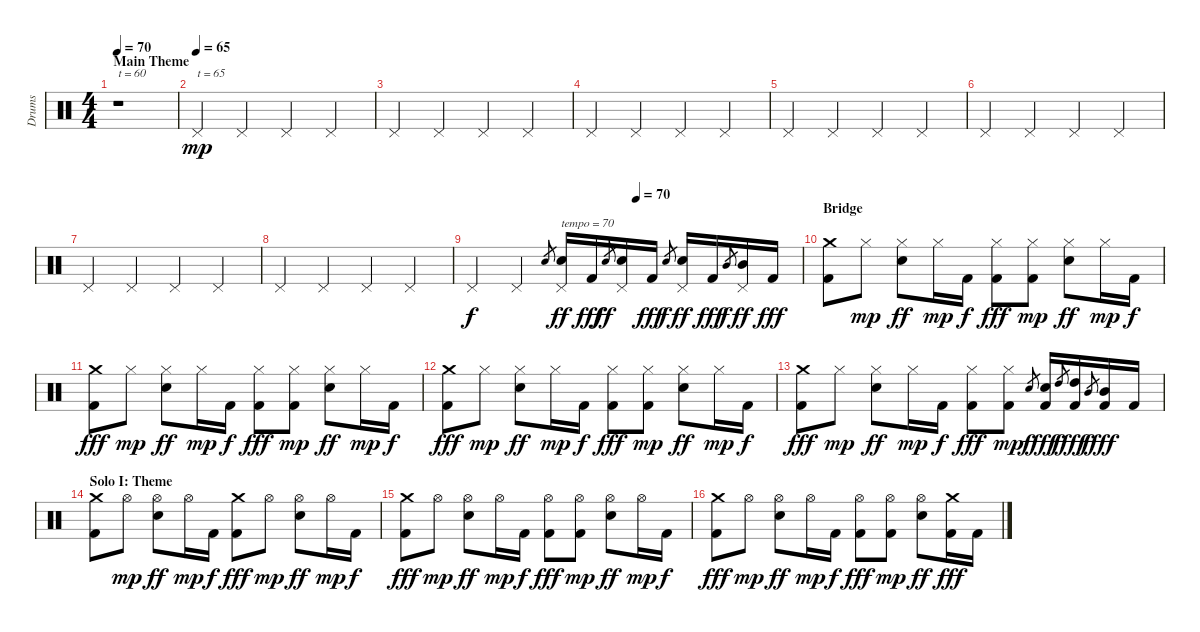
\track ("Drums" "Drums") {instrument percussion}
\staff {score}
\articulation defaults
\ts (4 4)
\section ("" "Main Theme")
\tempo 70
\tempo 60
\tempo 70
\clef neutral
\ks c
r.1{txt "t = 60" dy mp} |
\tempo (65)
"Pedal Hi-Hat (hit)".4{txt "t = 65"} "Pedal Hi-Hat (hit)".4 "Pedal Hi-Hat (hit)".4 "Pedal Hi-Hat (hit)".4 |
"Pedal Hi-Hat (hit)".4 "Pedal Hi-Hat (hit)".4 "Pedal Hi-Hat (hit)".4 "Pedal Hi-Hat (hit)".4 |
"Pedal Hi-Hat (hit)".4 "Pedal Hi-Hat (hit)".4 "Pedal Hi-Hat (hit)".4 "Pedal Hi-Hat (hit)".4 |
"Pedal Hi-Hat (hit)".4 "Pedal Hi-Hat (hit)".4 "Pedal Hi-Hat (hit)".4 "Pedal Hi-Hat (hit)".4 |
"Pedal Hi-Hat (hit)".4 "Pedal Hi-Hat (hit)".4 "Pedal Hi-Hat (hit)".4 "Pedal Hi-Hat (hit)".4 |
"Pedal Hi-Hat (hit)".4 "Pedal Hi-Hat (hit)".4 "Pedal Hi-Hat (hit)".4 "Pedal Hi-Hat (hit)".4 |
"Pedal Hi-Hat (hit)".4 "Pedal Hi-Hat (hit)".4 "Pedal Hi-Hat (hit)".4 "Pedal Hi-Hat (hit)".4 |
\tempo (70 0.5)
"Pedal Hi-Hat (hit)".4{dy f} "Pedal Hi-Hat (hit)".4 "Snare (hit) 2".8{gr} ("Pedal Hi-Hat (hit)" "Snare (hit) 2").16{txt "tempo = 70" dy ff} "Kick (hit) 2".16{dy fff} "Snare (hit) 2".8{gr dy ff} ("Pedal Hi-Hat (hit)" "Snare (hit) 2").16 "Kick (hit) 2".16{dy fff} "Snare (hit) 2".8{gr dy f} ("Pedal Hi-Hat (hit)" "Snare (hit) 2").16{dy ff} "Kick (hit) 2".16{dy fff} "Mid Tom (hit)".8{gr dy f} ("Pedal Hi-Hat (hit)" "Mid Tom (hit)").16{dy ff} "Kick (hit) 2".16{dy fff} |
\section ("" "Bridge")
("Crash medium (hit)" "Kick (hit) 2").8 "Hi-Hat (closed)".8{dy mp} ("Hi-Hat (closed)" "Snare (hit) 2").8{dy ff} "Hi-Hat (closed)".16{dy mp} "Kick (hit) 2".16{dy f} ("Hi-Hat (closed)" "Kick (hit) 2").8{dy fff} ("Hi-Hat (closed)" "Kick (hit) 2").8{dy mp} ("Hi-Hat (closed)" "Snare (hit) 2").8{dy ff} "Hi-Hat (closed)".16{dy mp} "Kick (hit) 2".16{dy f} |
("Crash medium (hit)" "Kick (hit) 2").8{dy fff} "Hi-Hat (closed)".8{dy mp} ("Hi-Hat (closed)" "Snare (hit) 2").8{dy ff} "Hi-Hat (closed)".16{dy mp} "Kick (hit) 2".16{dy f} ("Hi-Hat (closed)" "Kick (hit) 2").8{dy fff} ("Hi-Hat (closed)" "Kick (hit) 2").8{dy mp} ("Hi-Hat (closed)" "Snare (hit) 2").8{dy ff} "Hi-Hat (closed)".16{dy mp} "Kick (hit) 2".16{dy f} |
("Crash medium (hit)" "Kick (hit) 2").8{dy fff} "Hi-Hat (closed)".8{dy mp} ("Hi-Hat (closed)" "Snare (hit) 2").8{dy ff} "Hi-Hat (closed)".16{dy mp} "Kick (hit) 2".16{dy f} ("Hi-Hat (closed)" "Kick (hit) 2").8{dy fff} ("Hi-Hat (closed)" "Kick (hit) 2").8{dy mp} ("Hi-Hat (closed)" "Snare (hit) 2").8{dy ff} "Hi-Hat (closed)".16{dy mp} "Kick (hit) 2".16{dy f} |
("Crash medium (hit)" "Kick (hit) 2").8{dy fff} "Hi-Hat (closed)".8{dy mp} ("Hi-Hat (closed)" "Snare (hit) 2").8{dy ff} "Hi-Hat (closed)".16{dy mp} "Kick (hit) 2".16{dy f} ("Hi-Hat (closed)" "Kick (hit) 2").8{dy fff} ("Hi-Hat (closed)" "Kick (hit) 2").8{dy mp} "Snare (hit) 2".8{gr dy f} ("Snare (hit) 2" "Kick (hit) 2").16{dy fff} "High Tom (hit)".8{gr dy f} ("High Tom (hit)" "Kick (hit) 2").16{dy fff} "Mid Tom (hit)".8{gr dy f} ("Mid Tom (hit)" "Kick (hit) 2").16{dy fff} "Kick (hit) 2".16 |
\section ("" "Solo I: Theme")
("Crash medium (hit)" "Kick (hit) 2").8 "Hi-Hat (open)".8{dy mp} ("Hi-Hat (open)" "Snare (hit) 2").8{dy ff} "Hi-Hat (open)".16{dy mp} "Kick (hit) 2".16{dy f} ("Crash medium (hit)" "Kick (hit) 2").8{dy fff} "Hi-Hat (open)".8{dy mp} ("Hi-Hat (open)" "Snare (hit) 2").8{dy ff} "Hi-Hat (open)".16{dy mp} "Kick (hit) 2".16{dy f} |
("Crash medium (hit)" "Kick (hit) 2").8{dy fff} "Hi-Hat (open)".8{dy mp} ("Hi-Hat (open)" "Snare (hit) 2").8{dy ff} "Hi-Hat (open)".16{dy mp} "Kick (hit) 2".16{dy f} ("Hi-Hat (open)" "Kick (hit) 2").8{dy fff} ("Hi-Hat (open)" "Kick (hit) 2").8{dy mp} ("Hi-Hat (open)" "Snare (hit) 2").8{dy ff} "Hi-Hat (open)".16{dy mp} "Kick (hit) 2".16{dy f} |
("Crash medium (hit)" "Kick (hit) 2").8{dy fff} "Hi-Hat (open)".8{dy mp} ("Hi-Hat (open)" "Snare (hit) 2").8{dy ff} "Hi-Hat (open)".16{dy mp} "Kick (hit) 2".16{dy f} ("Hi-Hat (open)" "Kick (hit) 2").8{dy fff} ("Hi-Hat (open)" "Kick (hit) 2").8{dy mp} ("Hi-Hat (open)" "Snare (hit) 2").8{dy ff} ("Crash medium (hit)" "Kick (hit) 2").16{dy fff} "Kick (hit) 2".16
